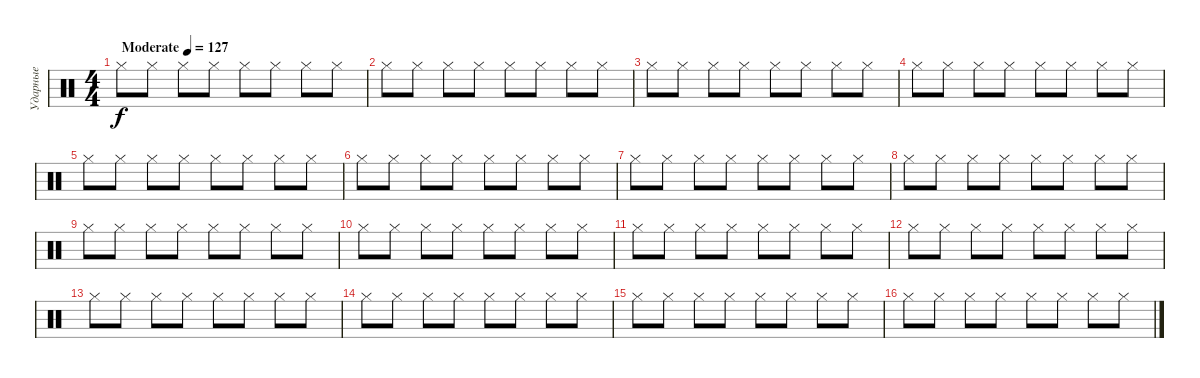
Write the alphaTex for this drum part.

\track ("Ударные" "Ударные") {instrument percussion}
\staff {score}
\articulation defaults
\ts (4 4)
\tempo (127 "Moderate")
\clef neutral
\ks c "Hi-Hat (closed)".8{dy f} "Hi-Hat (closed)".8 "Hi-Hat (closed)".8 "Hi-Hat (closed)".8 "Hi-Hat (closed)".8 "Hi-Hat (closed)".8 "Hi-Hat (closed)".8 "Hi-Hat (closed)".8
|
"Hi-Hat (closed)".8 "Hi-Hat (closed)".8 "Hi-Hat (closed)".8 "Hi-Hat (closed)".8 "Hi-Hat (closed)".8 "Hi-Hat (closed)".8 "Hi-Hat (closed)".8 "Hi-Hat (closed)".8 |
"Hi-Hat (closed)".8 "Hi-Hat (closed)".8 "Hi-Hat (closed)".8 "Hi-Hat (closed)".8 "Hi-Hat (closed)".8 "Hi-Hat (closed)".8 "Hi-Hat (closed)".8 "Hi-Hat (closed)".8 |
"Hi-Hat (closed)".8 "Hi-Hat (closed)".8 "Hi-Hat (closed)".8 "Hi-Hat (closed)".8 "Hi-Hat (closed)".8 "Hi-Hat (closed)".8 "Hi-Hat (closed)".8 "Hi-Hat (closed)".8 |
"Hi-Hat (closed)".8 "Hi-Hat (closed)".8 "Hi-Hat (closed)".8 "Hi-Hat (closed)".8 "Hi-Hat (closed)".8 "Hi-Hat (closed)".8 "Hi-Hat (closed)".8 "Hi-Hat (closed)".8 |
"Hi-Hat (closed)".8 "Hi-Hat (closed)".8 "Hi-Hat (closed)".8 "Hi-Hat (closed)".8 "Hi-Hat (closed)".8 "Hi-Hat (closed)".8 "Hi-Hat (closed)".8 "Hi-Hat (closed)".8 |
"Hi-Hat (closed)".8 "Hi-Hat (closed)".8 "Hi-Hat (closed)".8 "Hi-Hat (closed)".8 "Hi-Hat (closed)".8 "Hi-Hat (closed)".8 "Hi-Hat (closed)".8 "Hi-Hat (closed)".8 |
"Hi-Hat (closed)".8 "Hi-Hat (closed)".8 "Hi-Hat (closed)".8 "Hi-Hat (closed)".8 "Hi-Hat (closed)".8 "Hi-Hat (closed)".8 "Hi-Hat (closed)".8 "Hi-Hat (closed)".8 |
"Hi-Hat (closed)".8 "Hi-Hat (closed)".8 "Hi-Hat (closed)".8 "Hi-Hat (closed)".8 "Hi-Hat (closed)".8 "Hi-Hat (closed)".8 "Hi-Hat (closed)".8 "Hi-Hat (closed)".8 |
"Hi-Hat (closed)".8 "Hi-Hat (closed)".8 "Hi-Hat (closed)".8 "Hi-Hat (closed)".8 "Hi-Hat (closed)".8 "Hi-Hat (closed)".8 "Hi-Hat (closed)".8 "Hi-Hat (closed)".8 |
"Hi-Hat (closed)".8 "Hi-Hat (closed)".8 "Hi-Hat (closed)".8 "Hi-Hat (closed)".8 "Hi-Hat (closed)".8 "Hi-Hat (closed)".8 "Hi-Hat (closed)".8 "Hi-Hat (closed)".8 |
"Hi-Hat (closed)".8 "Hi-Hat (closed)".8 "Hi-Hat (closed)".8 "Hi-Hat (closed)".8 "Hi-Hat (closed)".8 "Hi-Hat (closed)".8 "Hi-Hat (closed)".8 "Hi-Hat (closed)".8 |
"Hi-Hat (closed)".8 "Hi-Hat (closed)".8 "Hi-Hat (closed)".8 "Hi-Hat (closed)".8 "Hi-Hat (closed)".8 "Hi-Hat (closed)".8 "Hi-Hat (closed)".8 "Hi-Hat (closed)".8 |
"Hi-Hat (closed)".8 "Hi-Hat (closed)".8 "Hi-Hat (closed)".8 "Hi-Hat (closed)".8 "Hi-Hat (closed)".8 "Hi-Hat (closed)".8 "Hi-Hat (closed)".8 "Hi-Hat (closed)".8 |
"Hi-Hat (closed)".8 "Hi-Hat (closed)".8 "Hi-Hat (closed)".8 "Hi-Hat (closed)".8 "Hi-Hat (closed)".8 "Hi-Hat (closed)".8 "Hi-Hat (closed)".8 "Hi-Hat (closed)".8 |
"Hi-Hat (closed)".8 "Hi-Hat (closed)".8 "Hi-Hat (closed)".8 "Hi-Hat (closed)".8 "Hi-Hat (closed)".8 "Hi-Hat (closed)".8 "Hi-Hat (closed)".8 "Hi-Hat (closed)".8
